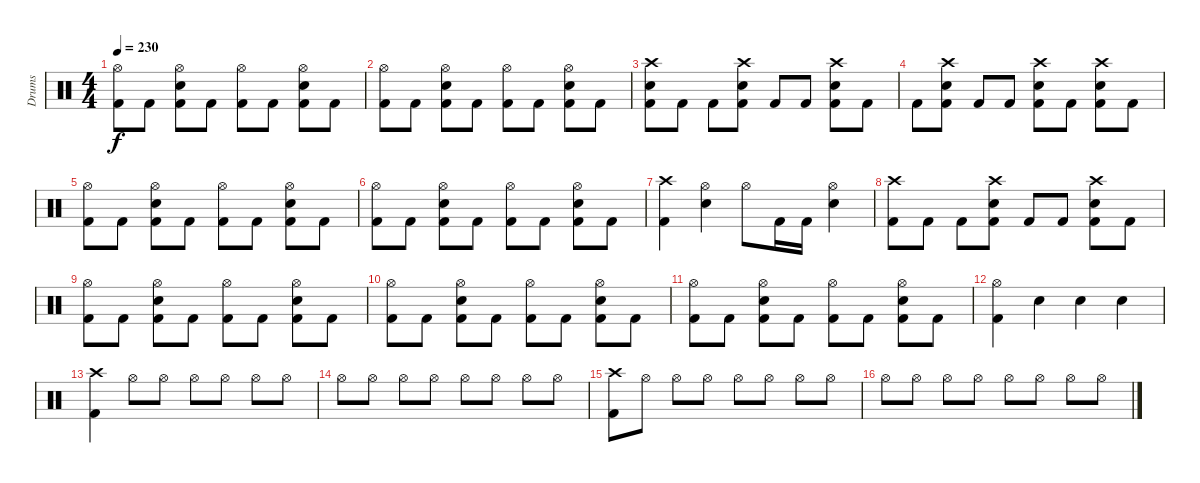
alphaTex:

\track ("Drums" "Drums") {instrument percussion}
\staff {score}
\articulation defaults
\ts (4 4)
\tempo 230
\clef neutral
\ks c
("Hi-Hat (open)" "Kick (hit) 2").8{dy f} "Kick (hit) 2".8 ("Hi-Hat (open)" "Electric Snare (hit)" "Kick (hit) 2").8 "Kick (hit) 2".8 ("Hi-Hat (open)" "Kick (hit) 2").8 "Kick (hit) 2".8 ("Hi-Hat (open)" "Electric Snare (hit)" "Kick (hit) 2").8 "Kick (hit) 2".8 |
("Hi-Hat (open)" "Kick (hit) 2").8 "Kick (hit) 2".8 ("Hi-Hat (open)" "Electric Snare (hit)" "Kick (hit) 2").8 "Kick (hit) 2".8 ("Hi-Hat (open)" "Kick (hit) 2").8 "Kick (hit) 2".8 ("Hi-Hat (open)" "Electric Snare (hit)" "Kick (hit) 2").8 "Kick (hit) 2".8 |
("Crash high (hit)" "Electric Snare (hit)" "Kick (hit) 2").8 "Kick (hit) 2".8 "Kick (hit) 2".8 ("Crash high (hit)" "Electric Snare (hit)" "Kick (hit) 2").8 "Kick (hit) 2".8 "Kick (hit) 2".8 ("Crash high (hit)" "Electric Snare (hit)" "Kick (hit) 2").8 "Kick (hit) 2".8 |
"Kick (hit) 2".8 ("Crash high (hit)" "Electric Snare (hit)" "Kick (hit) 2").8 "Kick (hit) 2".8 "Kick (hit) 2".8 ("Crash high (hit)" "Electric Snare (hit)" "Kick (hit) 2").8 "Kick (hit) 2".8 ("Crash high (hit)" "Electric Snare (hit)" "Kick (hit) 2").8 "Kick (hit) 2".8 |
("Hi-Hat (open)" "Kick (hit) 2").8 "Kick (hit) 2".8 ("Hi-Hat (open)" "Electric Snare (hit)" "Kick (hit) 2").8 "Kick (hit) 2".8 ("Hi-Hat (open)" "Kick (hit) 2").8 "Kick (hit) 2".8 ("Hi-Hat (open)" "Electric Snare (hit)" "Kick (hit) 2").8 "Kick (hit) 2".8 |
("Hi-Hat (open)" "Kick (hit) 2").8 "Kick (hit) 2".8 ("Hi-Hat (open)" "Electric Snare (hit)" "Kick (hit) 2").8 "Kick (hit) 2".8 ("Hi-Hat (open)" "Kick (hit) 2").8 "Kick (hit) 2".8 ("Hi-Hat (open)" "Electric Snare (hit)" "Kick (hit) 2").8 "Kick (hit) 2".8 |
("Crash high (hit)" "Kick (hit) 2").4 ("Hi-Hat (open)" "Electric Snare (hit)").4 "Hi-Hat (open)".8 "Kick (hit) 2".16 "Kick (hit) 2".16 ("Hi-Hat (open)" "Electric Snare (hit)").4 |
("Crash high (hit)" "Kick (hit) 2").8 "Kick (hit) 2".8 "Kick (hit) 2".8 ("Crash high (hit)" "Electric Snare (hit)" "Kick (hit) 2").8 "Kick (hit) 2".8 "Kick (hit) 2".8 ("Crash high (hit)" "Electric Snare (hit)" "Kick (hit) 2").8 "Kick (hit) 2".8 |
("Hi-Hat (open)" "Kick (hit) 2").8 "Kick (hit) 2".8 ("Hi-Hat (open)" "Electric Snare (hit)" "Kick (hit) 2").8 "Kick (hit) 2".8 ("Hi-Hat (open)" "Kick (hit) 2").8 "Kick (hit) 2".8 ("Hi-Hat (open)" "Electric Snare (hit)" "Kick (hit) 2").8 "Kick (hit) 2".8 |
("Hi-Hat (open)" "Kick (hit) 2").8 "Kick (hit) 2".8 ("Hi-Hat (open)" "Electric Snare (hit)" "Kick (hit) 2").8 "Kick (hit) 2".8 ("Hi-Hat (open)" "Kick (hit) 2").8 "Kick (hit) 2".8 ("Hi-Hat (open)" "Electric Snare (hit)" "Kick (hit) 2").8 "Kick (hit) 2".8 |
("Hi-Hat (open)" "Kick (hit) 2").8 "Kick (hit) 2".8 ("Hi-Hat (open)" "Electric Snare (hit)" "Kick (hit) 2").8 "Kick (hit) 2".8 ("Hi-Hat (open)" "Kick (hit) 2").8 "Kick (hit) 2".8 ("Hi-Hat (open)" "Electric Snare (hit)" "Kick (hit) 2").8 "Kick (hit) 2".8 |
("Hi-Hat (open)" "Kick (hit) 2").4 "Electric Snare (hit)".4 "Electric Snare (hit)".4 "Electric Snare (hit)".4 |
("Crash high (hit)" "Kick (hit) 2").4 "Hi-Hat (open)".8 "Hi-Hat (open)".8 "Hi-Hat (open)".8 "Hi-Hat (open)".8 "Hi-Hat (open)".8 "Hi-Hat (open)".8 |
"Hi-Hat (open)".8 "Hi-Hat (open)".8 "Hi-Hat (open)".8 "Hi-Hat (open)".8 "Hi-Hat (open)".8 "Hi-Hat (open)".8 "Hi-Hat (open)".8 "Hi-Hat (open)".8 |
("Crash high (hit)" "Kick (hit) 2").8 "Hi-Hat (open)".8 "Hi-Hat (open)".8 "Hi-Hat (open)".8 "Hi-Hat (open)".8 "Hi-Hat (open)".8 "Hi-Hat (open)".8 "Hi-Hat (open)".8 |
"Hi-Hat (open)".8 "Hi-Hat (open)".8 "Hi-Hat (open)".8 "Hi-Hat (open)".8 "Hi-Hat (open)".8 "Hi-Hat (open)".8 "Hi-Hat (open)".8 "Hi-Hat (open)".8
